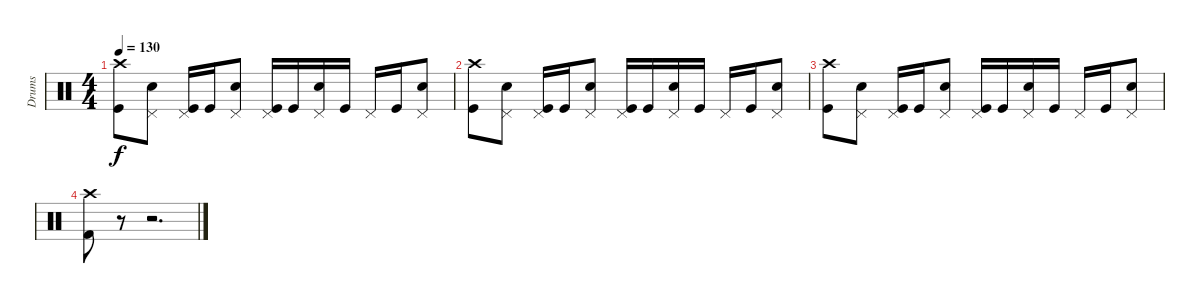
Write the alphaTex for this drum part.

\track ("Drums" "Drums") {instrument percussion}
\staff {score}
\articulation defaults
\ts (4 4)
\tempo 130
\clef neutral
\ks c
("Crash high (hit)" "Kick (hit)").8{dy f} ("Pedal Hi-Hat (hit)" "Electric Snare (hit)").8 ("Pedal Hi-Hat (hit)" "Kick (hit)").16 "Kick (hit)".16 ("Pedal Hi-Hat (hit)" "Electric Snare (hit)").8 ("Pedal Hi-Hat (hit)" "Kick (hit)").16 "Kick (hit)".16 ("Pedal Hi-Hat (hit)" "Electric Snare (hit)").16 "Kick (hit)".16 "Pedal Hi-Hat (hit)".16 "Kick (hit)".16 ("Pedal Hi-Hat (hit)" "Electric Snare (hit)").8 |
("Crash high (hit)" "Kick (hit)").8 ("Pedal Hi-Hat (hit)" "Electric Snare (hit)").8 ("Pedal Hi-Hat (hit)" "Kick (hit)").16 "Kick (hit)".16 ("Pedal Hi-Hat (hit)" "Electric Snare (hit)").8 ("Pedal Hi-Hat (hit)" "Kick (hit)").16 "Kick (hit)".16 ("Pedal Hi-Hat (hit)" "Electric Snare (hit)").16 "Kick (hit)".16 "Pedal Hi-Hat (hit)".16 "Kick (hit)".16 ("Pedal Hi-Hat (hit)" "Electric Snare (hit)").8 |
("Crash high (hit)" "Kick (hit)").8 ("Pedal Hi-Hat (hit)" "Electric Snare (hit)").8 ("Pedal Hi-Hat (hit)" "Kick (hit)").16 "Kick (hit)".16 ("Pedal Hi-Hat (hit)" "Electric Snare (hit)").8 ("Pedal Hi-Hat (hit)" "Kick (hit)").16 "Kick (hit)".16 ("Pedal Hi-Hat (hit)" "Electric Snare (hit)").16 "Kick (hit)".16 "Pedal Hi-Hat (hit)".16 "Kick (hit)".16 ("Pedal Hi-Hat (hit)" "Electric Snare (hit)").8 |
("Crash high (hit)" "Kick (hit) 2").8 r.8 r.2{d}
